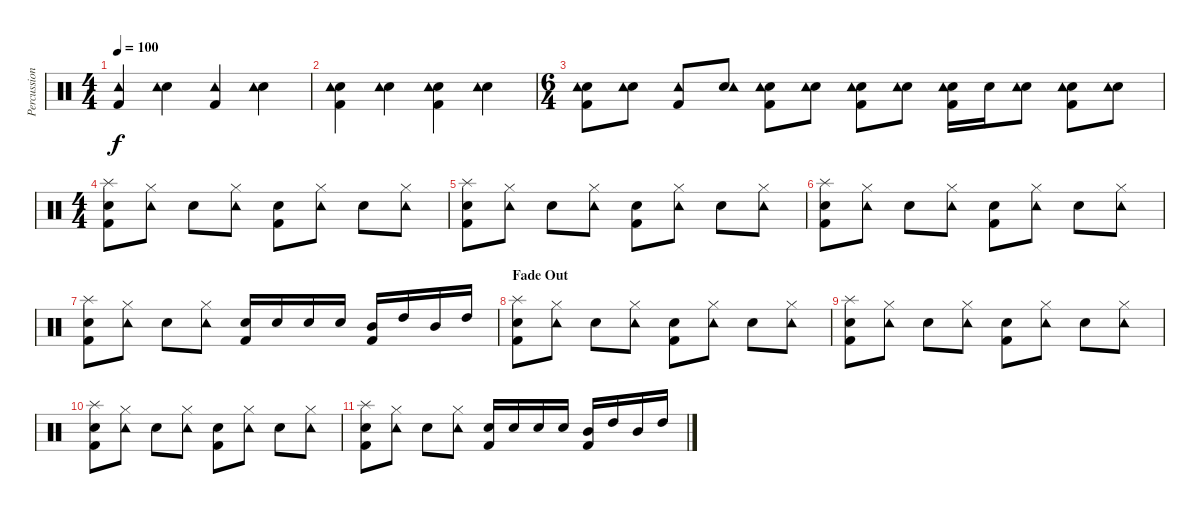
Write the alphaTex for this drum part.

\track ("Percussion" "Percussion") {instrument percussion}
\staff {score}
\articulation defaults
\ts (4 4)
\tempo 100
\clef neutral
\ks c
("Tambourine (hit)" "Kick (hit) 2").4{dy f} ("Electric Snare (hit)" "Tambourine (hit)").4 ("Tambourine (hit)" "Kick (hit) 2").4 ("Electric Snare (hit)" "Tambourine (hit)").4 |
("Electric Snare (hit)" "Tambourine (hit)" "Kick (hit) 2").4 ("Electric Snare (hit)" "Tambourine (hit)").4 ("Electric Snare (hit)" "Tambourine (hit)" "Kick (hit) 2").4 ("Electric Snare (hit)" "Tambourine (hit)").4 |
\ts (6 4)
("Electric Snare (hit)" "Tambourine (hit)" "Kick (hit) 2").8 ("Electric Snare (hit)" "Tambourine (hit)").8 ("Tambourine (hit)" "Kick (hit) 2").8 ("Electric Snare (hit)" "Tambourine (hit)").8 ("Electric Snare (hit)" "Tambourine (hit)" "Kick (hit) 2").8 ("Electric Snare (hit)" "Tambourine (hit)").8 ("Electric Snare (hit)" "Tambourine (hit)" "Kick (hit) 2").8 ("Electric Snare (hit)" "Tambourine (hit)").8 ("Electric Snare (hit)" "Tambourine (hit)" "Kick (hit) 2").16 "Electric Snare (hit)".16 ("Electric Snare (hit)" "Tambourine (hit)").8 ("Electric Snare (hit)" "Tambourine (hit)" "Kick (hit) 2").8 ("Electric Snare (hit)" "Tambourine (hit)").8 |
\ts (4 4)
("Splash (hit)" "Electric Snare (hit)" "Kick (hit) 2").8 ("Hi-Hat (closed)" "Tambourine (hit)").8 "Electric Snare (hit)".8 ("Hi-Hat (closed)" "Tambourine (hit)").8 ("Electric Snare (hit)" "Kick (hit) 2").8 ("Hi-Hat (closed)" "Tambourine (hit)").8 "Electric Snare (hit)".8 ("Hi-Hat (closed)" "Tambourine (hit)").8 |
("Splash (hit)" "Electric Snare (hit)" "Kick (hit) 2").8 ("Hi-Hat (closed)" "Tambourine (hit)").8 "Electric Snare (hit)".8 ("Hi-Hat (closed)" "Tambourine (hit)").8 ("Electric Snare (hit)" "Kick (hit) 2").8 ("Hi-Hat (closed)" "Tambourine (hit)").8 "Electric Snare (hit)".8 ("Hi-Hat (closed)" "Tambourine (hit)").8 |
("Splash (hit)" "Electric Snare (hit)" "Kick (hit) 2").8 ("Hi-Hat (closed)" "Tambourine (hit)").8 "Electric Snare (hit)".8 ("Hi-Hat (closed)" "Tambourine (hit)").8 ("Electric Snare (hit)" "Kick (hit) 2").8 ("Hi-Hat (closed)" "Tambourine (hit)").8 "Electric Snare (hit)".8 ("Hi-Hat (closed)" "Tambourine (hit)").8 |
("Splash (hit)" "Electric Snare (hit)" "Kick (hit) 2").8 ("Hi-Hat (closed)" "Tambourine (hit)").8 "Electric Snare (hit)".8 ("Hi-Hat (closed)" "Tambourine (hit)").8 ("Electric Snare (hit)" "Kick (hit) 2").16 "Electric Snare (hit)".16 "Electric Snare (hit)".16 "Electric Snare (hit)".16 ("Mid Tom (hit)" "Kick (hit) 2").16 "High Tom (hit)".16 "Mid Tom (hit)".16 "High Tom (hit)".16 |
\section ("" "Fade Out")
("Splash (hit)" "Electric Snare (hit)" "Kick (hit) 2").8 ("Hi-Hat (closed)" "Tambourine (hit)").8 "Electric Snare (hit)".8 ("Hi-Hat (closed)" "Tambourine (hit)").8 ("Electric Snare (hit)" "Kick (hit) 2").8 ("Hi-Hat (closed)" "Tambourine (hit)").8 "Electric Snare (hit)".8 ("Hi-Hat (closed)" "Tambourine (hit)").8 |
("Splash (hit)" "Electric Snare (hit)" "Kick (hit) 2").8 ("Hi-Hat (closed)" "Tambourine (hit)").8 "Electric Snare (hit)".8 ("Hi-Hat (closed)" "Tambourine (hit)").8 ("Electric Snare (hit)" "Kick (hit) 2").8 ("Hi-Hat (closed)" "Tambourine (hit)").8 "Electric Snare (hit)".8 ("Hi-Hat (closed)" "Tambourine (hit)").8 |
("Splash (hit)" "Electric Snare (hit)" "Kick (hit) 2").8 ("Hi-Hat (closed)" "Tambourine (hit)").8 "Electric Snare (hit)".8 ("Hi-Hat (closed)" "Tambourine (hit)").8 ("Electric Snare (hit)" "Kick (hit) 2").8 ("Hi-Hat (closed)" "Tambourine (hit)").8 "Electric Snare (hit)".8 ("Hi-Hat (closed)" "Tambourine (hit)").8 |
("Splash (hit)" "Electric Snare (hit)" "Kick (hit) 2").8 ("Hi-Hat (closed)" "Tambourine (hit)").8 "Electric Snare (hit)".8 ("Hi-Hat (closed)" "Tambourine (hit)").8 ("Electric Snare (hit)" "Kick (hit) 2").16 "Electric Snare (hit)".16 "Electric Snare (hit)".16 "Electric Snare (hit)".16 ("Mid Tom (hit)" "Kick (hit) 2").16 "High Tom (hit)".16 "Mid Tom (hit)".16 "High Tom (hit)".16
